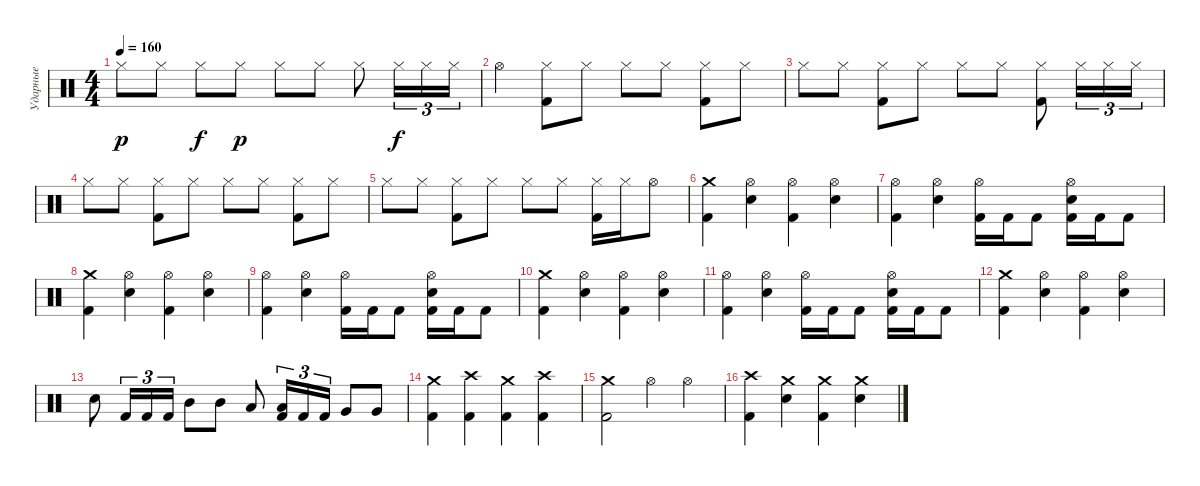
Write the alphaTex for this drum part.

\track ("Ударные" "Ударные") {instrument percussion}
\staff {score}
\articulation defaults
\ts (4 4)
\tempo 160
\clef neutral
\ks c "Hi-Hat (closed)".8{dy p} "Hi-Hat (closed)".8 "Hi-Hat (closed)".8{dy f} "Hi-Hat (closed)".8{dy p} "Hi-Hat (closed)".8 "Hi-Hat (closed)".8 "Hi-Hat (closed)".8 "Hi-Hat (closed)".16{tu (3 2) dy f} "Hi-Hat (closed)".16{tu (3 2)} "Hi-Hat (closed)".16{tu (3 2)}
|
"Hi-Hat (open)".4 ("Kick (hit) 2" "Hi-Hat (closed)").8 "Hi-Hat (closed)".8 "Hi-Hat (closed)".8 "Hi-Hat (closed)".8 ("Kick (hit) 2" "Hi-Hat (closed)").8 "Hi-Hat (closed)".8 |
"Hi-Hat (closed)".8 "Hi-Hat (closed)".8 ("Kick (hit) 2" "Hi-Hat (closed)").8 "Hi-Hat (closed)".8 "Hi-Hat (closed)".8 "Hi-Hat (closed)".8 ("Kick (hit) 2" "Hi-Hat (closed)").8 "Hi-Hat (closed)".16{tu (3 2)} "Hi-Hat (closed)".16{tu (3 2)} "Hi-Hat (closed)".16{tu (3 2)} |
"Hi-Hat (closed)".8 "Hi-Hat (closed)".8 ("Kick (hit) 2" "Hi-Hat (closed)").8 "Hi-Hat (closed)".8 "Hi-Hat (closed)".8 "Hi-Hat (closed)".8 ("Kick (hit) 2" "Hi-Hat (closed)").8 "Hi-Hat (closed)".8 |
"Hi-Hat (closed)".8 "Hi-Hat (closed)".8 ("Kick (hit) 2" "Hi-Hat (closed)").8 "Hi-Hat (closed)".8 "Hi-Hat (closed)".8 "Hi-Hat (closed)".8 ("Kick (hit) 2" "Hi-Hat (closed)").16 "Hi-Hat (closed)".16 "Hi-Hat (open)".8 |
("Crash medium (hit)" "Kick (hit) 2").4 ("Hi-Hat (open)" "Electric Snare (hit)").4 ("Hi-Hat (open)" "Kick (hit) 2").4 ("Hi-Hat (open)" "Electric Snare (hit)").4 |
("Hi-Hat (open)" "Kick (hit) 2").4 ("Hi-Hat (open)" "Electric Snare (hit)").4 ("Hi-Hat (open)" "Kick (hit) 2").16 "Kick (hit) 2".16 "Kick (hit) 2".8 ("Hi-Hat (open)" "Electric Snare (hit)" "Kick (hit) 2").16 "Kick (hit) 2".16 "Kick (hit) 2".8 |
("Crash medium (hit)" "Kick (hit) 2").4 ("Hi-Hat (open)" "Electric Snare (hit)").4 ("Hi-Hat (open)" "Kick (hit) 2").4 ("Hi-Hat (open)" "Electric Snare (hit)").4 |
("Hi-Hat (open)" "Kick (hit) 2").4 ("Hi-Hat (open)" "Electric Snare (hit)").4 ("Hi-Hat (open)" "Kick (hit) 2").16 "Kick (hit) 2".16 "Kick (hit) 2".8 ("Hi-Hat (open)" "Electric Snare (hit)" "Kick (hit) 2").16 "Kick (hit) 2".16 "Kick (hit) 2".8 |
("Crash medium (hit)" "Kick (hit) 2").4 ("Hi-Hat (open)" "Electric Snare (hit)").4 ("Hi-Hat (open)" "Kick (hit) 2").4 ("Hi-Hat (open)" "Electric Snare (hit)").4 |
("Hi-Hat (open)" "Kick (hit) 2").4 ("Hi-Hat (open)" "Electric Snare (hit)").4 ("Hi-Hat (open)" "Kick (hit) 2").16 "Kick (hit) 2".16 "Kick (hit) 2".8 ("Hi-Hat (open)" "Electric Snare (hit)" "Kick (hit) 2").16 "Kick (hit) 2".16 "Kick (hit) 2".8 |
("Crash medium (hit)" "Kick (hit) 2").4 ("Hi-Hat (open)" "Electric Snare (hit)").4 ("Hi-Hat (open)" "Kick (hit) 2").4 ("Hi-Hat (open)" "Electric Snare (hit)").4 |
"Electric Snare (hit)".8 "Kick (hit) 2".16{tu (3 2)} "Kick (hit) 2".16{tu (3 2)} "Kick (hit) 2".16{tu (3 2)} "Mid Tom (hit)".8 "Mid Tom (hit)".8 "Low Tom (hit)".8 ("Kick (hit) 2" "Low Tom (hit)").16{tu (3 2)} "Kick (hit) 2".16{tu (3 2)} "Kick (hit) 2".16{tu (3 2)} "Very Low Tom (hit)".8 "Very Low Tom (hit)".8 |
("Crash medium (hit)" "Kick (hit) 2").4 ("Crash high (hit)" "Kick (hit) 2").4 ("Crash medium (hit)" "Kick (hit) 2").4 ("Crash high (hit)" "Kick (hit) 2").4 |
("Crash medium (hit)" "Kick (hit) 2").2 "Hi-Hat (open)".4 "Hi-Hat (open)".4 |
("Crash high (hit)" "Kick (hit) 2").4 ("Crash medium (hit)" "Electric Snare (hit)").4 ("Crash medium (hit)" "Kick (hit) 2").4 ("Crash medium (hit)" "Electric Snare (hit)").4
